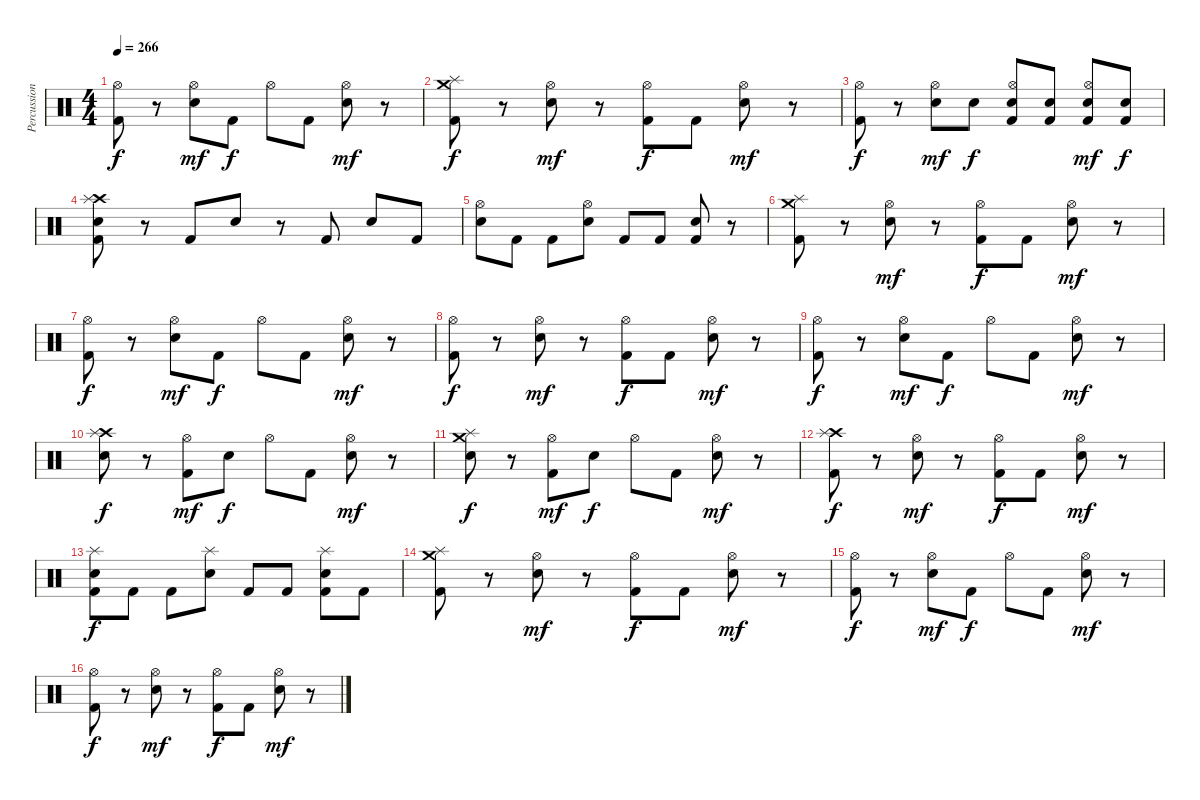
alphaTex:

\track ("Percussion" "Percussion") {instrument percussion}
\staff {score}
\articulation defaults
\ts (4 4)
\tempo 266
\clef neutral
\ks c
("Kick (hit) 2" "Hi-Hat (open)").8{dy f} r.8 ("Snare (hit) 2" "Hi-Hat (open)").8{dy mf} "Kick (hit) 2".8{dy f} "Hi-Hat (open)".8 "Kick (hit) 2".8 ("Snare (hit) 2" "Hi-Hat (open)").8{dy mf} r.8 |
("Crash medium (hit)" "Splash (hit)" "Kick (hit) 2").8{dy f} r.8 ("Snare (hit) 2" "Hi-Hat (open)").8{dy mf} r.8 ("Kick (hit) 2" "Hi-Hat (open)").8{dy f} "Kick (hit) 2".8 ("Snare (hit) 2" "Hi-Hat (open)").8{dy mf} r.8 |
("Kick (hit) 2" "Hi-Hat (open)").8{dy f} r.8 ("Snare (hit) 2" "Hi-Hat (open)").8{dy mf} "Snare (hit) 2".8{dy f} ("Snare (hit) 2" "Kick (hit) 2" "Hi-Hat (open)").8 ("Snare (hit) 2" "Kick (hit) 2").8 ("Kick (hit) 2" "Snare (hit) 2" "Hi-Hat (open)").8{dy mf} ("Snare (hit) 2" "Kick (hit) 2").8{dy f} |
("Snare (hit) 2" "Crash high (hit)" "Splash (hit)" "Kick (hit) 2").8 r.8 "Kick (hit) 2".8 "Snare (hit) 2".8 r.8 "Kick (hit) 2".8 "Snare (hit) 2".8 "Kick (hit) 2".8 |
("Snare (hit) 2" "Hi-Hat (open)").8 "Kick (hit) 2".8 "Kick (hit) 2".8 ("Snare (hit) 2" "Hi-Hat (open)").8 "Kick (hit) 2".8 "Kick (hit) 2".8 ("Kick (hit) 2" "Snare (hit) 2").8 r.8 |
("Crash medium (hit)" "Splash (hit)" "Kick (hit) 2").8 r.8 ("Snare (hit) 2" "Hi-Hat (open)").8{dy mf} r.8 ("Kick (hit) 2" "Hi-Hat (open)").8{dy f} "Kick (hit) 2".8 ("Snare (hit) 2" "Hi-Hat (open)").8{dy mf} r.8 |
("Kick (hit) 2" "Hi-Hat (open)").8{dy f} r.8 ("Snare (hit) 2" "Hi-Hat (open)").8{dy mf} "Kick (hit) 2".8{dy f} "Hi-Hat (open)".8 "Kick (hit) 2".8 ("Snare (hit) 2" "Hi-Hat (open)").8{dy mf} r.8 |
("Hi-Hat (open)" "Kick (hit) 2").8{dy f} r.8 ("Snare (hit) 2" "Hi-Hat (open)").8{dy mf} r.8 ("Kick (hit) 2" "Hi-Hat (open)").8{dy f} "Kick (hit) 2".8 ("Snare (hit) 2" "Hi-Hat (open)").8{dy mf} r.8 |
("Kick (hit) 2" "Hi-Hat (open)").8{dy f} r.8 ("Snare (hit) 2" "Hi-Hat (open)").8{dy mf} "Kick (hit) 2".8{dy f} "Hi-Hat (open)".8 "Kick (hit) 2".8 ("Snare (hit) 2" "Hi-Hat (open)").8{dy mf} r.8 |
("Snare (hit) 2" "Crash high (hit)" "Splash (hit)").8{dy f} r.8 ("Kick (hit) 2" "Hi-Hat (open)").8{dy mf} "Snare (hit) 2".8{dy f} "Hi-Hat (open)".8 "Kick (hit) 2".8 ("Snare (hit) 2" "Hi-Hat (open)").8{dy mf} r.8 |
("Snare (hit) 2" "Splash (hit)" "Crash medium (hit)").8{dy f} r.8 ("Kick (hit) 2" "Hi-Hat (open)").8{dy mf} "Snare (hit) 2".8{dy f} "Hi-Hat (open)".8 "Kick (hit) 2".8 ("Snare (hit) 2" "Hi-Hat (open)").8{dy mf} r.8 |
("Crash high (hit)" "Splash (hit)" "Kick (hit) 2").8{dy f} r.8 ("Snare (hit) 2" "Hi-Hat (open)").8{dy mf} r.8 ("Kick (hit) 2" "Hi-Hat (open)").8{dy f} "Kick (hit) 2".8 ("Snare (hit) 2" "Hi-Hat (open)").8{dy mf} r.8 |
("Snare (hit) 2" "Kick (hit) 2" "Splash (hit)").8{dy f} "Kick (hit) 2".8 "Kick (hit) 2".8 ("Snare (hit) 2" "Splash (hit)").8 "Kick (hit) 2".8 "Kick (hit) 2".8 ("Snare (hit) 2" "Kick (hit) 2" "Splash (hit)").8 "Kick (hit) 2".8 |
("Crash medium (hit)" "Splash (hit)" "Kick (hit) 2").8 r.8 ("Snare (hit) 2" "Hi-Hat (open)").8{dy mf} r.8 ("Kick (hit) 2" "Hi-Hat (open)").8{dy f} "Kick (hit) 2".8 ("Snare (hit) 2" "Hi-Hat (open)").8{dy mf} r.8 |
("Kick (hit) 2" "Hi-Hat (open)").8{dy f} r.8 ("Snare (hit) 2" "Hi-Hat (open)").8{dy mf} "Kick (hit) 2".8{dy f} "Hi-Hat (open)".8 "Kick (hit) 2".8 ("Snare (hit) 2" "Hi-Hat (open)").8{dy mf} r.8 |
("Hi-Hat (open)" "Kick (hit) 2").8{dy f} r.8 ("Snare (hit) 2" "Hi-Hat (open)").8{dy mf} r.8 ("Kick (hit) 2" "Hi-Hat (open)").8{dy f} "Kick (hit) 2".8 ("Snare (hit) 2" "Hi-Hat (open)").8{dy mf} r.8
